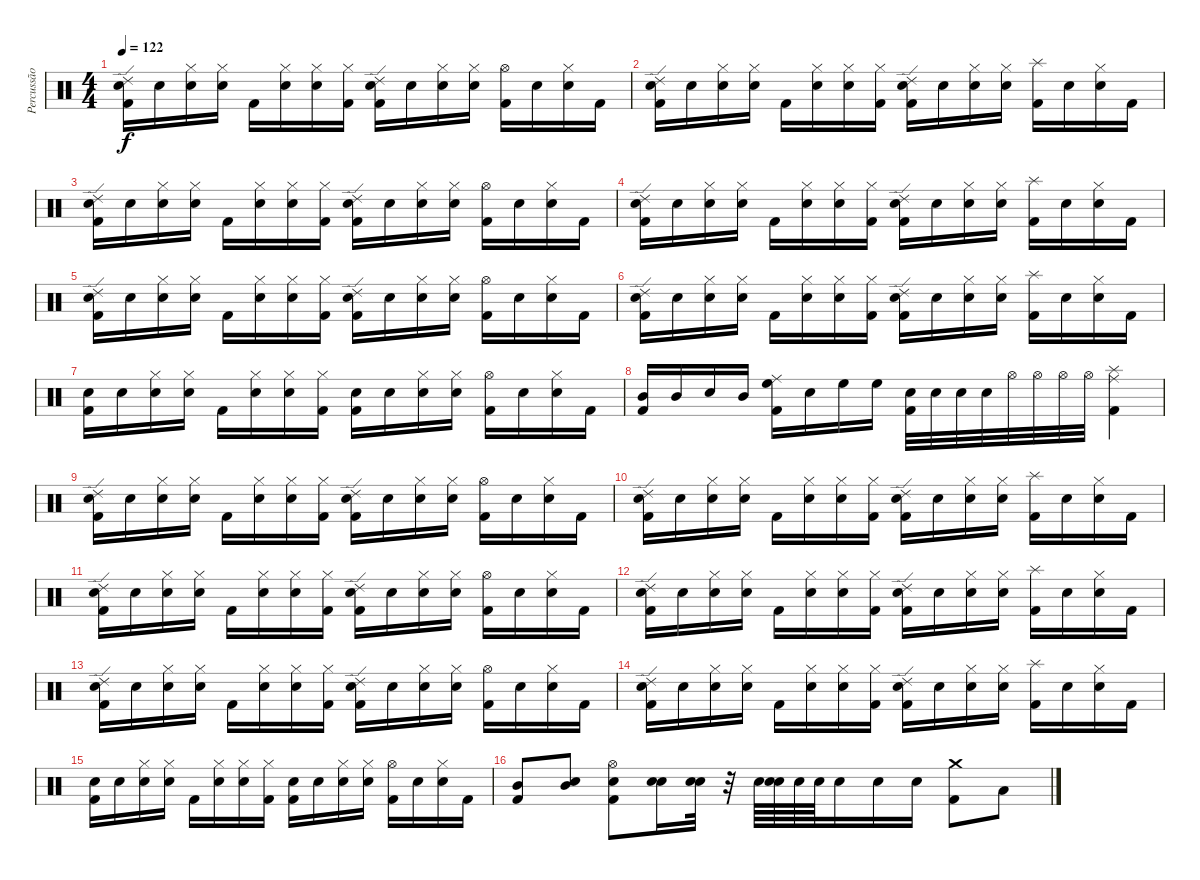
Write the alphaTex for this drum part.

\track ("Percussão" "Percussão") {instrument percussion}
\staff {score}
\articulation defaults
\ts (4 4)
\tempo 122
\clef neutral
\ks c
("Kick (hit) 2" "Electric Snare (hit)" "Ride (edge) 2").16{dy f} "Snare (hit)".16 ("Snare (hit)" "Hi-Hat (closed)").16 ("Snare (hit)" "Hi-Hat (closed)").16 "Kick (hit) 2".16 ("Snare (hit)" "Hi-Hat (closed)").16 ("Snare (hit)" "Hi-Hat (closed)").16 ("Kick (hit) 2" "Hi-Hat (closed)").16 ("Kick (hit) 2" "Electric Snare (hit)" "Ride (edge) 2").16 "Snare (hit)".16 ("Snare (hit)" "Hi-Hat (closed)").16 ("Snare (hit)" "Hi-Hat (closed)").16 ("Kick (hit) 2" "Hi-Hat (open)").16 "Snare (hit)".16 ("Snare (hit)" "Hi-Hat (closed)").16 "Kick (hit) 2".16 |
("Kick (hit) 2" "Electric Snare (hit)" "Ride (edge) 2").16 "Snare (hit)".16 ("Snare (hit)" "Hi-Hat (closed)").16 ("Snare (hit)" "Hi-Hat (closed)").16 "Kick (hit) 2".16 ("Snare (hit)" "Hi-Hat (closed)").16 ("Snare (hit)" "Hi-Hat (closed)").16 ("Kick (hit) 2" "Hi-Hat (closed)").16 ("Kick (hit) 2" "Electric Snare (hit)" "Ride (edge) 2").16 "Snare (hit)".16 ("Snare (hit)" "Hi-Hat (closed)").16 ("Snare (hit)" "Hi-Hat (closed)").16 ("Kick (hit) 2" "Splash (hit)").16 "Snare (hit)".16 ("Snare (hit)" "Hi-Hat (closed)").16 "Kick (hit) 2".16 |
("Kick (hit) 2" "Electric Snare (hit)" "Ride (edge) 2").16 "Snare (hit)".16 ("Snare (hit)" "Hi-Hat (closed)").16 ("Snare (hit)" "Hi-Hat (closed)").16 "Kick (hit) 2".16 ("Snare (hit)" "Hi-Hat (closed)").16 ("Snare (hit)" "Hi-Hat (closed)").16 ("Kick (hit) 2" "Hi-Hat (closed)").16 ("Kick (hit) 2" "Electric Snare (hit)" "Ride (edge) 2").16 "Snare (hit)".16 ("Snare (hit)" "Hi-Hat (closed)").16 ("Snare (hit)" "Hi-Hat (closed)").16 ("Kick (hit) 2" "Hi-Hat (open)").16 "Snare (hit)".16 ("Snare (hit)" "Hi-Hat (closed)").16 "Kick (hit) 2".16 |
("Kick (hit) 2" "Electric Snare (hit)" "Ride (edge) 2").16 "Snare (hit)".16 ("Snare (hit)" "Hi-Hat (closed)").16 ("Snare (hit)" "Hi-Hat (closed)").16 "Kick (hit) 2".16 ("Snare (hit)" "Hi-Hat (closed)").16 ("Snare (hit)" "Hi-Hat (closed)").16 ("Kick (hit) 2" "Hi-Hat (closed)").16 ("Kick (hit) 2" "Electric Snare (hit)" "Ride (edge) 2").16 "Snare (hit)".16 ("Snare (hit)" "Hi-Hat (closed)").16 ("Snare (hit)" "Hi-Hat (closed)").16 ("Kick (hit) 2" "Splash (hit)").16 "Snare (hit)".16 ("Snare (hit)" "Hi-Hat (closed)").16 "Kick (hit) 2".16 |
("Kick (hit) 2" "Electric Snare (hit)" "Ride (edge) 2").16 "Snare (hit)".16 ("Snare (hit)" "Hi-Hat (closed)").16 ("Snare (hit)" "Hi-Hat (closed)").16 "Kick (hit) 2".16 ("Snare (hit)" "Hi-Hat (closed)").16 ("Snare (hit)" "Hi-Hat (closed)").16 ("Kick (hit) 2" "Hi-Hat (closed)").16 ("Kick (hit) 2" "Electric Snare (hit)" "Ride (edge) 2").16 "Snare (hit)".16 ("Snare (hit)" "Hi-Hat (closed)").16 ("Snare (hit)" "Hi-Hat (closed)").16 ("Kick (hit) 2" "Hi-Hat (open)").16 "Snare (hit)".16 ("Snare (hit)" "Hi-Hat (closed)").16 "Kick (hit) 2".16 |
("Kick (hit) 2" "Electric Snare (hit)" "Ride (edge) 2").16 "Snare (hit)".16 ("Snare (hit)" "Hi-Hat (closed)").16 ("Snare (hit)" "Hi-Hat (closed)").16 "Kick (hit) 2".16 ("Snare (hit)" "Hi-Hat (closed)").16 ("Snare (hit)" "Hi-Hat (closed)").16 ("Kick (hit) 2" "Hi-Hat (closed)").16 ("Kick (hit) 2" "Electric Snare (hit)" "Ride (edge) 2").16 "Snare (hit)".16 ("Snare (hit)" "Hi-Hat (closed)").16 ("Snare (hit)" "Hi-Hat (closed)").16 ("Kick (hit) 2" "Splash (hit)").16 "Snare (hit)".16 ("Snare (hit)" "Hi-Hat (closed)").16 "Kick (hit) 2".16 |
("Kick (hit) 2" "Electric Snare (hit)").16 "Snare (hit)".16 ("Snare (hit)" "Hi-Hat (closed)").16 ("Snare (hit)" "Hi-Hat (closed)").16 "Kick (hit) 2".16 ("Snare (hit)" "Hi-Hat (closed)").16 ("Snare (hit)" "Hi-Hat (closed)").16 ("Kick (hit) 2" "Hi-Hat (closed)").16 ("Kick (hit) 2" "Electric Snare (hit)").16 "Snare (hit)".16 ("Snare (hit)" "Hi-Hat (closed)").16 ("Snare (hit)" "Hi-Hat (closed)").16 ("Kick (hit) 2" "Hi-Hat (open)").16 "Snare (hit)".16 ("Snare (hit)" "Hi-Hat (closed)").16 "Kick (hit) 2".16 |
("Kick (hit) 2" "Mid Tom (hit)").16 "Mid Tom (hit)".16 "Electric Snare (hit)".16 "Mid Tom (hit)".16 ("Kick (hit) 2" "High Floor Tom (hit)" "Ride (middle)").16 "Electric Snare (hit)".16 "High Floor Tom (hit)".16 "High Floor Tom (hit)".16 ("Kick (hit) 2" "Electric Snare (hit)").32 "Electric Snare (hit)".32 "Electric Snare (hit)".32 "Electric Snare (hit)".32 "Hi-Hat (open)".32 "Hi-Hat (open)".32 "Hi-Hat (open)".32 "Hi-Hat (open)".32 ("Kick (hit) 2" "Splash (hit)" "Ride (middle)").4 |
("Kick (hit) 2" "Electric Snare (hit)" "Ride (edge) 2").16 "Snare (hit)".16 ("Snare (hit)" "Hi-Hat (closed)").16 ("Snare (hit)" "Hi-Hat (closed)").16 "Kick (hit) 2".16 ("Snare (hit)" "Hi-Hat (closed)").16 ("Snare (hit)" "Hi-Hat (closed)").16 ("Kick (hit) 2" "Hi-Hat (closed)").16 ("Kick (hit) 2" "Electric Snare (hit)" "Ride (edge) 2").16 "Snare (hit)".16 ("Snare (hit)" "Hi-Hat (closed)").16 ("Snare (hit)" "Hi-Hat (closed)").16 ("Kick (hit) 2" "Hi-Hat (open)").16 "Snare (hit)".16 ("Snare (hit)" "Hi-Hat (closed)").16 "Kick (hit) 2".16 |
("Kick (hit) 2" "Electric Snare (hit)" "Ride (edge) 2").16 "Snare (hit)".16 ("Snare (hit)" "Hi-Hat (closed)").16 ("Snare (hit)" "Hi-Hat (closed)").16 "Kick (hit) 2".16 ("Snare (hit)" "Hi-Hat (closed)").16 ("Snare (hit)" "Hi-Hat (closed)").16 ("Kick (hit) 2" "Hi-Hat (closed)").16 ("Kick (hit) 2" "Electric Snare (hit)" "Ride (edge) 2").16 "Snare (hit)".16 ("Snare (hit)" "Hi-Hat (closed)").16 ("Snare (hit)" "Hi-Hat (closed)").16 ("Kick (hit) 2" "Splash (hit)").16 "Snare (hit)".16 ("Snare (hit)" "Hi-Hat (closed)").16 "Kick (hit) 2".16 |
("Kick (hit) 2" "Electric Snare (hit)" "Ride (edge) 2").16 "Snare (hit)".16 ("Snare (hit)" "Hi-Hat (closed)").16 ("Snare (hit)" "Hi-Hat (closed)").16 "Kick (hit) 2".16 ("Snare (hit)" "Hi-Hat (closed)").16 ("Snare (hit)" "Hi-Hat (closed)").16 ("Kick (hit) 2" "Hi-Hat (closed)").16 ("Kick (hit) 2" "Electric Snare (hit)" "Ride (edge) 2").16 "Snare (hit)".16 ("Snare (hit)" "Hi-Hat (closed)").16 ("Snare (hit)" "Hi-Hat (closed)").16 ("Kick (hit) 2" "Hi-Hat (open)").16 "Snare (hit)".16 ("Snare (hit)" "Hi-Hat (closed)").16 "Kick (hit) 2".16 |
("Kick (hit) 2" "Electric Snare (hit)" "Ride (edge) 2").16 "Snare (hit)".16 ("Snare (hit)" "Hi-Hat (closed)").16 ("Snare (hit)" "Hi-Hat (closed)").16 "Kick (hit) 2".16 ("Snare (hit)" "Hi-Hat (closed)").16 ("Snare (hit)" "Hi-Hat (closed)").16 ("Kick (hit) 2" "Hi-Hat (closed)").16 ("Kick (hit) 2" "Electric Snare (hit)" "Ride (edge) 2").16 "Snare (hit)".16 ("Snare (hit)" "Hi-Hat (closed)").16 ("Snare (hit)" "Hi-Hat (closed)").16 ("Kick (hit) 2" "Splash (hit)").16 "Snare (hit)".16 ("Snare (hit)" "Hi-Hat (closed)").16 "Kick (hit) 2".16 |
("Kick (hit) 2" "Electric Snare (hit)" "Ride (edge) 2").16 "Snare (hit)".16 ("Snare (hit)" "Hi-Hat (closed)").16 ("Snare (hit)" "Hi-Hat (closed)").16 "Kick (hit) 2".16 ("Snare (hit)" "Hi-Hat (closed)").16 ("Snare (hit)" "Hi-Hat (closed)").16 ("Kick (hit) 2" "Hi-Hat (closed)").16 ("Kick (hit) 2" "Electric Snare (hit)" "Ride (edge) 2").16 "Snare (hit)".16 ("Snare (hit)" "Hi-Hat (closed)").16 ("Snare (hit)" "Hi-Hat (closed)").16 ("Kick (hit) 2" "Hi-Hat (open)").16 "Snare (hit)".16 ("Snare (hit)" "Hi-Hat (closed)").16 "Kick (hit) 2".16 |
("Kick (hit) 2" "Electric Snare (hit)" "Ride (edge) 2").16 "Snare (hit)".16 ("Snare (hit)" "Hi-Hat (closed)").16 ("Snare (hit)" "Hi-Hat (closed)").16 "Kick (hit) 2".16 ("Snare (hit)" "Hi-Hat (closed)").16 ("Snare (hit)" "Hi-Hat (closed)").16 ("Kick (hit) 2" "Hi-Hat (closed)").16 ("Kick (hit) 2" "Electric Snare (hit)" "Ride (edge) 2").16 "Snare (hit)".16 ("Snare (hit)" "Hi-Hat (closed)").16 ("Snare (hit)" "Hi-Hat (closed)").16 ("Kick (hit) 2" "Splash (hit)").16 "Snare (hit)".16 ("Snare (hit)" "Hi-Hat (closed)").16 "Kick (hit) 2".16 |
("Kick (hit) 2" "Electric Snare (hit)").16 "Snare (hit)".16 ("Snare (hit)" "Hi-Hat (closed)").16 ("Snare (hit)" "Hi-Hat (closed)").16 "Kick (hit) 2".16 ("Snare (hit)" "Hi-Hat (closed)").16 ("Snare (hit)" "Hi-Hat (closed)").16 ("Kick (hit) 2" "Hi-Hat (closed)").16 ("Kick (hit) 2" "Electric Snare (hit)").16 "Snare (hit)".16 ("Snare (hit)" "Hi-Hat (closed)").16 ("Snare (hit)" "Hi-Hat (closed)").16 ("Kick (hit) 2" "Hi-Hat (open)").16 "Snare (hit)".16 ("Snare (hit)" "Hi-Hat (closed)").16 "Kick (hit) 2".16 |
("Kick (hit) 2" "Mid Tom (hit)").8 ("Snare (hit)" "Mid Tom (hit)").8 ("Kick (hit) 2" "Electric Snare (hit)" "Hi-Hat (open)").8 ("Snare (hit)" "Electric Snare (hit)").16 ("Snare (hit)" "Electric Snare (hit)").32 r.32 "Electric Snare (hit)".64 ("Snare (hit)" "Electric Snare (hit)").64 "Electric Snare (hit)".64 "Electric Snare (hit)".64 "Electric Snare (hit)".16 "Electric Snare (hit)".16 "Electric Snare (hit)".16 ("Kick (hit) 2" "Crash medium (hit)").8 "Low Floor Tom (hit)".8
